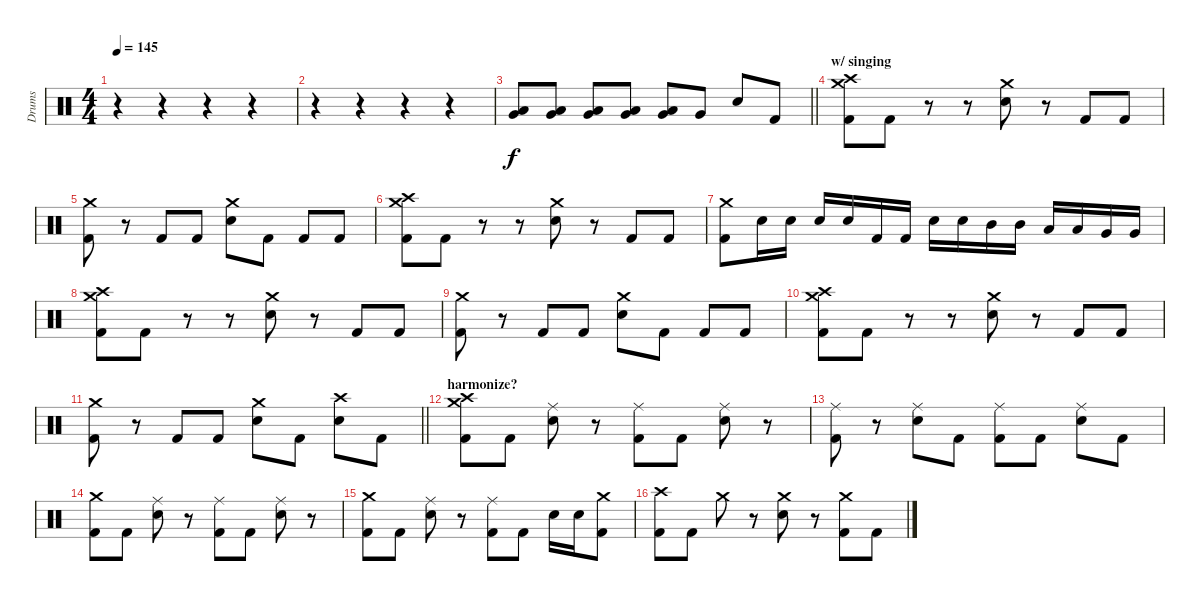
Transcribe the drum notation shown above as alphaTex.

\track ("Drums" "Drums") {instrument percussion}
\staff {score}
\articulation defaults
\ts (4 4)
\tempo 145
\clef neutral
\ks c
r.4{dy f} r.4 r.4 r.4 |
r.4 r.4 r.4 r.4 |
\barLineRight lightlight
("Low Tom (hit)" "Very Low Tom (hit)").8 ("Low Tom (hit)" "Very Low Tom (hit)").8 ("Low Tom (hit)" "Very Low Tom (hit)").8 ("Low Tom (hit)" "Very Low Tom (hit)").8 ("Low Tom (hit)" "Very Low Tom (hit)").8 "Very Low Tom (hit)".8 "Snare (hit) 2".8 "Kick (hit) 2".8 |
\section ("" "w/ singing")
("Crash high (hit)" "Crash medium (hit)" "Kick (hit) 2").8 "Kick (hit) 2".8 r.8 r.8 ("Crash medium (hit)" "Snare (hit) 2").8 r.8 "Kick (hit) 2".8 "Kick (hit) 2".8 |
("Crash medium (hit)" "Kick (hit) 2").8 r.8 "Kick (hit) 2".8 "Kick (hit) 2".8 ("Crash medium (hit)" "Snare (hit) 2").8 "Kick (hit) 2".8 "Kick (hit) 2".8 "Kick (hit) 2".8 |
("Crash high (hit)" "Crash medium (hit)" "Kick (hit) 2").8 "Kick (hit) 2".8 r.8 r.8 ("Crash medium (hit)" "Snare (hit) 2").8 r.8 "Kick (hit) 2".8 "Kick (hit) 2".8 |
("Crash medium (hit)" "Kick (hit) 2").8 "Snare (hit) 2".16 "Snare (hit) 2".16 "Snare (hit) 2".16 "Snare (hit) 2".16 "Kick (hit) 2".16 "Kick (hit) 2".16 "Snare (hit) 2".16 "Snare (hit) 2".16 "Mid Tom (hit)".16 "Mid Tom (hit)".16 "Low Tom (hit)".16 "Low Tom (hit)".16 "Very Low Tom (hit)".16 "Very Low Tom (hit)".16 |
("Crash high (hit)" "Crash medium (hit)" "Kick (hit) 2").8 "Kick (hit) 2".8 r.8 r.8 ("Crash medium (hit)" "Snare (hit) 2").8 r.8 "Kick (hit) 2".8 "Kick (hit) 2".8 |
("Crash medium (hit)" "Kick (hit) 2").8 r.8 "Kick (hit) 2".8 "Kick (hit) 2".8 ("Crash medium (hit)" "Snare (hit) 2").8 "Kick (hit) 2".8 "Kick (hit) 2".8 "Kick (hit) 2".8 |
("Crash high (hit)" "Crash medium (hit)" "Kick (hit) 2").8 "Kick (hit) 2".8 r.8 r.8 ("Crash medium (hit)" "Snare (hit) 2").8 r.8 "Kick (hit) 2".8 "Kick (hit) 2".8 |
\barLineRight lightlight
("Crash medium (hit)" "Kick (hit) 2").8 r.8 "Kick (hit) 2".8 "Kick (hit) 2".8 ("Crash medium (hit)" "Snare (hit) 2").8 "Kick (hit) 2".8 ("Crash high (hit)" "Snare (hit) 2").8 "Kick (hit) 2".8 |
\section ("" "harmonize?")
("Crash high (hit)" "Crash medium (hit)" "Kick (hit) 2").8 "Kick (hit) 2".8 ("Ride (middle)" "Snare (hit) 2").8 r.8 ("Ride (middle)" "Kick (hit) 2").8 "Kick (hit) 2".8 ("Ride (middle)" "Snare (hit) 2").8 r.8 |
("Ride (middle)" "Kick (hit) 2").8 r.8 ("Ride (middle)" "Snare (hit) 2").8 "Kick (hit) 2".8 ("Ride (middle)" "Kick (hit) 2").8 "Kick (hit) 2".8 ("Ride (middle)" "Snare (hit) 2").8 "Kick (hit) 2".8 |
("Crash medium (hit)" "Kick (hit) 2").8 "Kick (hit) 2".8 ("Ride (middle)" "Snare (hit) 2").8 r.8 ("Ride (middle)" "Kick (hit) 2").8 "Kick (hit) 2".8 ("Ride (middle)" "Snare (hit) 2").8 r.8 |
("Crash medium (hit)" "Kick (hit) 2").8 "Kick (hit) 2".8 ("Ride (middle)" "Snare (hit) 2").8 r.8 ("Ride (middle)" "Kick (hit) 2").8 "Kick (hit) 2".8 "Snare (hit) 2".16 "Snare (hit) 2".16 ("Crash medium (hit)" "Kick (hit) 2").8 |
("Crash high (hit)" "Kick (hit) 2").8 "Kick (hit) 2".8 "Crash medium (hit)".8 r.8 ("Crash medium (hit)" "Snare (hit) 2").8 r.8 ("Crash medium (hit)" "Kick (hit) 2").8 "Kick (hit) 2".8
